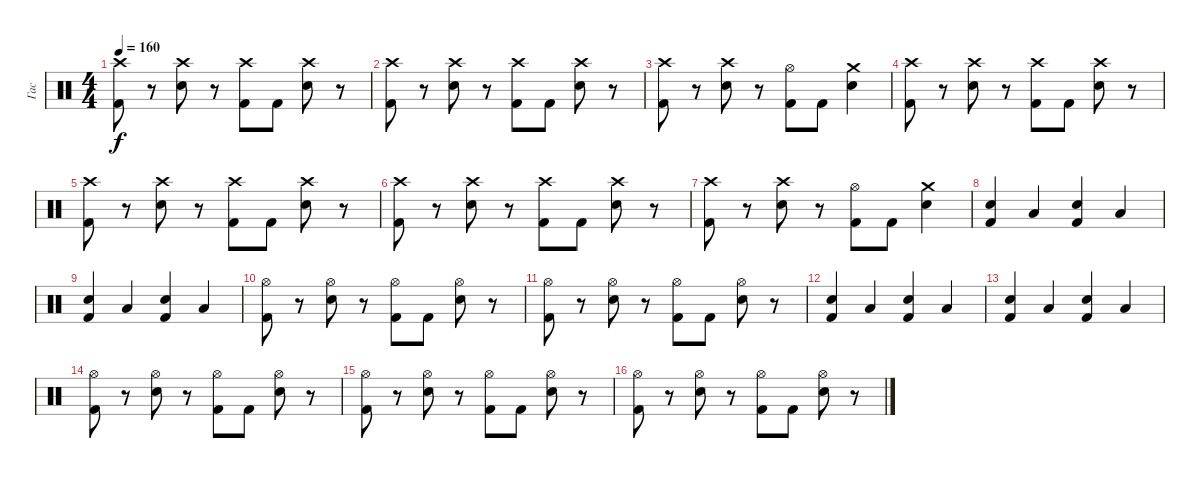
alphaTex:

\track ("Гас" "Гас") {instrument percussion}
\staff {score}
\articulation defaults
\ts (4 4)
\tempo 160
\clef neutral
\ks c
("Crash high (hit)" "Kick (hit) 2").8{dy f} r.8 ("Crash high (hit)" "Electric Snare (hit)").8 r.8 ("Crash high (hit)" "Kick (hit) 2").8 "Kick (hit) 2".8 ("Crash high (hit)" "Electric Snare (hit)").8 r.8 |
("Crash high (hit)" "Kick (hit) 2").8 r.8 ("Crash high (hit)" "Electric Snare (hit)").8 r.8 ("Crash high (hit)" "Kick (hit) 2").8 "Kick (hit) 2".8 ("Crash high (hit)" "Electric Snare (hit)").8 r.8 |
("Crash high (hit)" "Kick (hit) 2").8 r.8 ("Crash high (hit)" "Electric Snare (hit)").8 r.8 ("Hi-Hat (open)" "Kick (hit) 2").8 "Kick (hit) 2".8 ("Crash medium (hit)" "Electric Snare (hit)").4 |
("Crash high (hit)" "Kick (hit) 2").8 r.8 ("Crash high (hit)" "Electric Snare (hit)").8 r.8 ("Crash high (hit)" "Kick (hit) 2").8 "Kick (hit) 2".8 ("Crash high (hit)" "Electric Snare (hit)").8 r.8 |
("Crash high (hit)" "Kick (hit) 2").8 r.8 ("Crash high (hit)" "Electric Snare (hit)").8 r.8 ("Crash high (hit)" "Kick (hit) 2").8 "Kick (hit) 2".8 ("Crash high (hit)" "Electric Snare (hit)").8 r.8 |
("Crash high (hit)" "Kick (hit) 2").8 r.8 ("Crash high (hit)" "Electric Snare (hit)").8 r.8 ("Crash high (hit)" "Kick (hit) 2").8 "Kick (hit) 2".8 ("Crash high (hit)" "Electric Snare (hit)").8 r.8 |
("Crash high (hit)" "Kick (hit) 2").8 r.8 ("Crash high (hit)" "Electric Snare (hit)").8 r.8 ("Hi-Hat (open)" "Kick (hit) 2").8 "Kick (hit) 2".8 ("Crash medium (hit)" "Electric Snare (hit)").4 |
("Snare (hit) 2" "Kick (hit) 2").4 "Low Floor Tom (hit)".4 ("Snare (hit) 2" "Kick (hit) 2").4 "Low Floor Tom (hit)".4 |
("Snare (hit) 2" "Kick (hit) 2").4 "Low Floor Tom (hit)".4 ("Snare (hit) 2" "Kick (hit) 2").4 "Low Floor Tom (hit)".4 |
("Hi-Hat (open)" "Kick (hit) 2").8 r.8 ("Hi-Hat (open)" "Electric Snare (hit)").8 r.8 ("Hi-Hat (open)" "Kick (hit) 2").8 "Kick (hit) 2".8 ("Hi-Hat (open)" "Electric Snare (hit)").8 r.8 |
("Hi-Hat (open)" "Kick (hit) 2").8 r.8 ("Hi-Hat (open)" "Electric Snare (hit)").8 r.8 ("Hi-Hat (open)" "Kick (hit) 2").8 "Kick (hit) 2".8 ("Hi-Hat (open)" "Electric Snare (hit)").8 r.8 |
("Snare (hit) 2" "Kick (hit) 2").4 "Low Floor Tom (hit)".4 ("Snare (hit) 2" "Kick (hit) 2").4 "Low Floor Tom (hit)".4 |
("Snare (hit) 2" "Kick (hit) 2").4 "Low Floor Tom (hit)".4 ("Snare (hit) 2" "Kick (hit) 2").4 "Low Floor Tom (hit)".4 |
("Hi-Hat (open)" "Kick (hit) 2").8 r.8 ("Hi-Hat (open)" "Electric Snare (hit)").8 r.8 ("Hi-Hat (open)" "Kick (hit) 2").8 "Kick (hit) 2".8 ("Hi-Hat (open)" "Electric Snare (hit)").8 r.8 |
("Hi-Hat (open)" "Kick (hit) 2").8 r.8 ("Hi-Hat (open)" "Electric Snare (hit)").8 r.8 ("Hi-Hat (open)" "Kick (hit) 2").8 "Kick (hit) 2".8 ("Hi-Hat (open)" "Electric Snare (hit)").8 r.8 |
("Hi-Hat (open)" "Kick (hit) 2").8 r.8 ("Hi-Hat (open)" "Electric Snare (hit)").8 r.8 ("Hi-Hat (open)" "Kick (hit) 2").8 "Kick (hit) 2".8 ("Hi-Hat (open)" "Electric Snare (hit)").8 r.8
